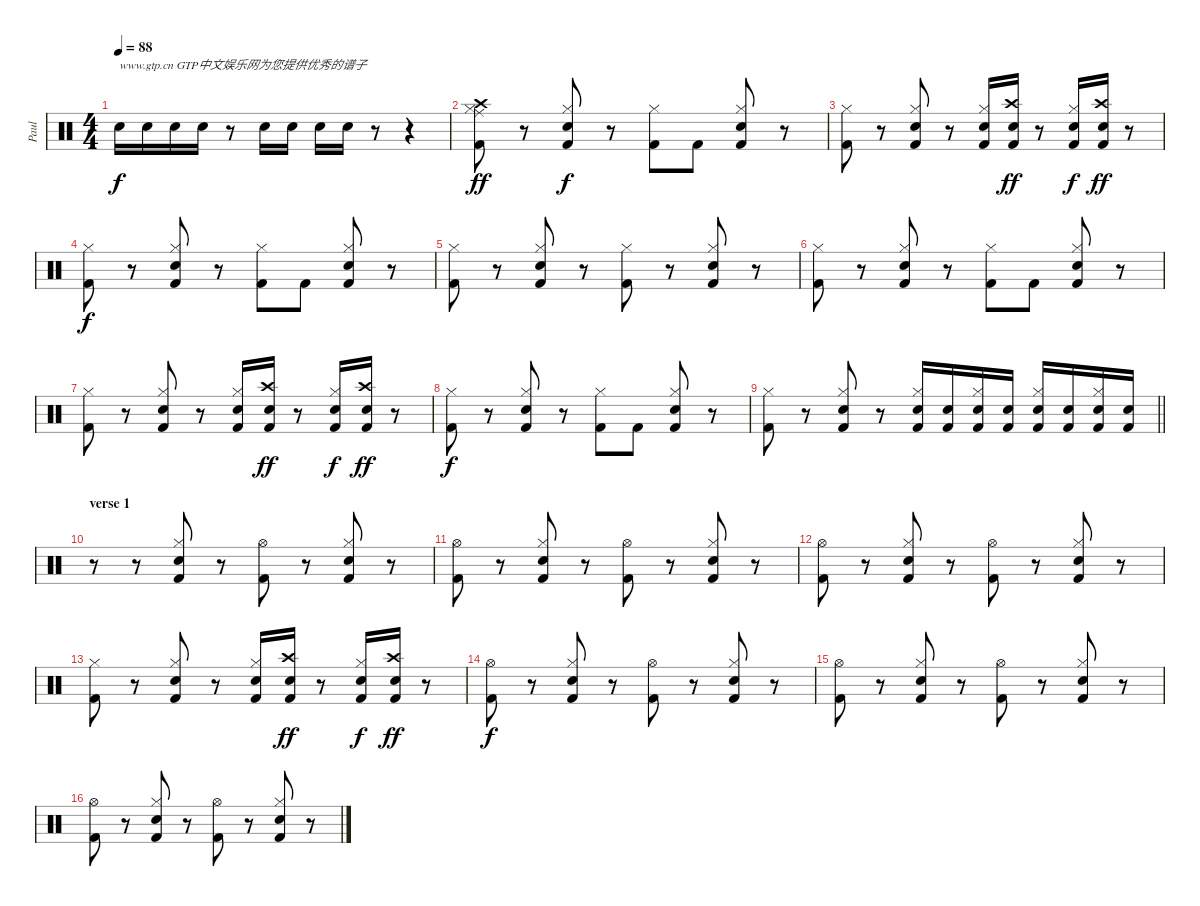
\track ("Paul" "Paul") {instrument percussion}
\staff {score}
\articulation defaults
\ts (4 4)
\tempo 88
\clef neutral
\ks c "Snare (hit) 2".16{txt "www.gtp.cn GTP中文娱乐网为您提供优秀的谱子" dy f} "Snare (hit) 2".16 "Snare (hit) 2".16 "Snare (hit) 2".16
r.8 "Snare (hit) 2".16 "Snare (hit) 2".16 "Snare (hit) 2".16 "Snare (hit) 2".16 r.8 r.4 |
("Hi-Hat (closed)" "Crash high (hit)" "Ride (middle)" "Kick (hit) 2").8{dy ff} r.8 ("Snare (hit) 2" "Hi-Hat (closed)" "Kick (hit) 2").8{dy f} r.8 ("Hi-Hat (closed)" "Kick (hit) 2").8 "Kick (hit) 2".8 ("Snare (hit) 2" "Hi-Hat (closed)" "Kick (hit) 2").8 r.8 |
("Hi-Hat (closed)" "Kick (hit) 2").8 r.8 ("Snare (hit) 2" "Hi-Hat (closed)" "Kick (hit) 2").8 r.8 ("Snare (hit) 2" "Hi-Hat (closed)" "Kick (hit) 2").16 ("Snare (hit) 2" "Crash high (hit)" "Kick (hit) 2").16{dy ff} r.8 ("Snare (hit) 2" "Hi-Hat (closed)" "Kick (hit) 2").16{dy f} ("Snare (hit) 2" "Crash high (hit)" "Kick (hit) 2").16{dy ff} r.8 |
("Hi-Hat (closed)" "Kick (hit) 2").8{dy f} r.8 ("Snare (hit) 2" "Hi-Hat (closed)" "Kick (hit) 2").8 r.8 ("Hi-Hat (closed)" "Kick (hit) 2").8 "Kick (hit) 2".8 ("Snare (hit) 2" "Hi-Hat (closed)" "Kick (hit) 2").8 r.8 |
("Hi-Hat (closed)" "Kick (hit) 2").8 r.8 ("Snare (hit) 2" "Hi-Hat (closed)" "Kick (hit) 2").8 r.8 ("Hi-Hat (closed)" "Kick (hit) 2").8 r.8 ("Snare (hit) 2" "Hi-Hat (closed)" "Kick (hit) 2").8 r.8 |
("Hi-Hat (closed)" "Kick (hit) 2").8 r.8 ("Snare (hit) 2" "Hi-Hat (closed)" "Kick (hit) 2").8 r.8 ("Hi-Hat (closed)" "Kick (hit) 2").8 "Kick (hit) 2".8 ("Snare (hit) 2" "Hi-Hat (closed)" "Kick (hit) 2").8 r.8 |
("Hi-Hat (closed)" "Kick (hit) 2").8 r.8 ("Snare (hit) 2" "Hi-Hat (closed)" "Kick (hit) 2").8 r.8 ("Snare (hit) 2" "Hi-Hat (closed)" "Kick (hit) 2").16 ("Snare (hit) 2" "Crash high (hit)" "Kick (hit) 2").16{dy ff} r.8 ("Snare (hit) 2" "Hi-Hat (closed)" "Kick (hit) 2").16{dy f} ("Snare (hit) 2" "Crash high (hit)" "Kick (hit) 2").16{dy ff} r.8 |
("Hi-Hat (closed)" "Kick (hit) 2").8{dy f} r.8 ("Snare (hit) 2" "Hi-Hat (closed)" "Kick (hit) 2").8 r.8 ("Hi-Hat (closed)" "Kick (hit) 2").8 "Kick (hit) 2".8 ("Snare (hit) 2" "Hi-Hat (closed)" "Kick (hit) 2").8 r.8 |
\barLineRight lightlight
("Hi-Hat (closed)" "Kick (hit) 2").8 r.8 ("Snare (hit) 2" "Hi-Hat (closed)" "Kick (hit) 2").8 r.8 ("Snare (hit) 2" "Hi-Hat (closed)" "Kick (hit) 2").16 ("Snare (hit) 2" "Kick (hit) 2").16 ("Snare (hit) 2" "Hi-Hat (closed)" "Kick (hit) 2").16 ("Snare (hit) 2" "Kick (hit) 2").16 ("Snare (hit) 2" "Hi-Hat (closed)" "Kick (hit) 2").16 ("Snare (hit) 2" "Kick (hit) 2").16 ("Snare (hit) 2" "Hi-Hat (closed)" "Kick (hit) 2").16 ("Snare (hit) 2" "Kick (hit) 2").16 |
\section ("" "verse 1")
r.8 r.8 ("Snare (hit) 2" "Hi-Hat (closed)" "Kick (hit) 2").8 r.8 ("Hi-Hat (open)" "Kick (hit) 2").8 r.8 ("Snare (hit) 2" "Hi-Hat (closed)" "Kick (hit) 2").8 r.8 |
("Hi-Hat (open)" "Kick (hit) 2").8 r.8 ("Snare (hit) 2" "Hi-Hat (closed)" "Kick (hit) 2").8 r.8 ("Hi-Hat (open)" "Kick (hit) 2").8 r.8 ("Snare (hit) 2" "Hi-Hat (closed)" "Kick (hit) 2").8 r.8 |
("Hi-Hat (open)" "Kick (hit) 2").8 r.8 ("Snare (hit) 2" "Hi-Hat (closed)" "Kick (hit) 2").8 r.8 ("Hi-Hat (open)" "Kick (hit) 2").8 r.8 ("Snare (hit) 2" "Hi-Hat (closed)" "Kick (hit) 2").8 r.8 |
("Hi-Hat (closed)" "Kick (hit) 2").8 r.8 ("Snare (hit) 2" "Hi-Hat (closed)" "Kick (hit) 2").8 r.8 ("Snare (hit) 2" "Hi-Hat (closed)" "Kick (hit) 2").16 ("Snare (hit) 2" "Crash high (hit)" "Kick (hit) 2").16{dy ff} r.8 ("Snare (hit) 2" "Hi-Hat (closed)" "Kick (hit) 2").16{dy f} ("Snare (hit) 2" "Crash high (hit)" "Kick (hit) 2").16{dy ff} r.8 |
("Hi-Hat (open)" "Kick (hit) 2").8{dy f} r.8 ("Snare (hit) 2" "Hi-Hat (closed)" "Kick (hit) 2").8 r.8 ("Hi-Hat (open)" "Kick (hit) 2").8 r.8 ("Snare (hit) 2" "Hi-Hat (closed)" "Kick (hit) 2").8 r.8 |
("Hi-Hat (open)" "Kick (hit) 2").8 r.8 ("Snare (hit) 2" "Hi-Hat (closed)" "Kick (hit) 2").8 r.8 ("Hi-Hat (open)" "Kick (hit) 2").8 r.8 ("Snare (hit) 2" "Hi-Hat (closed)" "Kick (hit) 2").8 r.8 |
("Hi-Hat (open)" "Kick (hit) 2").8 r.8 ("Snare (hit) 2" "Hi-Hat (closed)" "Kick (hit) 2").8 r.8 ("Hi-Hat (open)" "Kick (hit) 2").8 r.8 ("Snare (hit) 2" "Hi-Hat (closed)" "Kick (hit) 2").8 r.8
